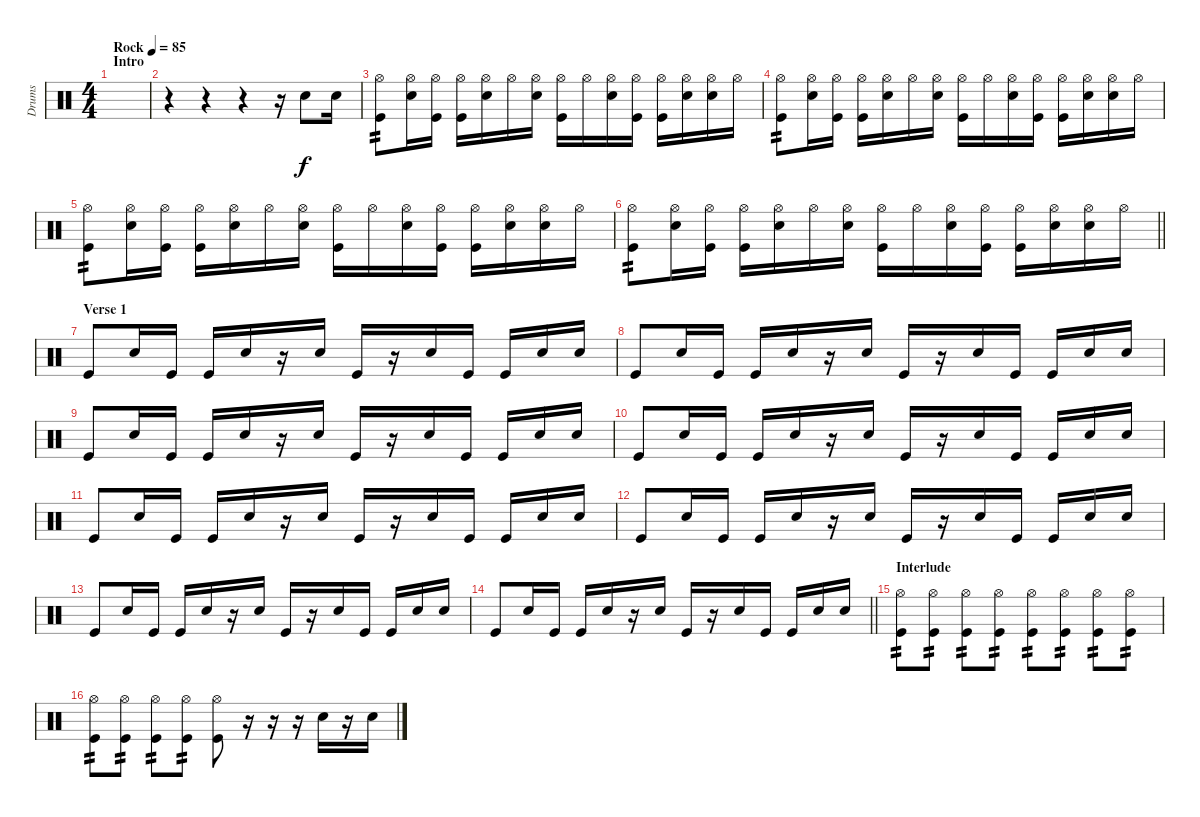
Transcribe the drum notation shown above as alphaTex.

\track ("Drums" "Drums") {instrument percussion}
\staff {score}
\articulation defaults
\ts (4 4)
\section ("" "Intro")
\tempo (85 "Rock")
\clef neutral
\ks c
|
r.4 r.4 r.4 r.16 "Snare (hit) 2".8 "Snare (hit) 2".16 |
("Hi-Hat (open)" "Kick (hit)").8{tp 2} ("Hi-Hat (open)" "Snare (hit) 2").16 ("Hi-Hat (open)" "Kick (hit)").16 ("Hi-Hat (open)" "Kick (hit)").16 ("Hi-Hat (open)" "Snare (hit) 2").16 "Hi-Hat (open)".16 ("Hi-Hat (open)" "Snare (hit) 2").16 ("Hi-Hat (open)" "Kick (hit)").16 "Hi-Hat (open)".16 ("Hi-Hat (open)" "Snare (hit) 2").16 ("Hi-Hat (open)" "Kick (hit)").16 ("Hi-Hat (open)" "Kick (hit)").16 ("Hi-Hat (open)" "Snare (hit) 2").16 ("Hi-Hat (open)" "Snare (hit) 2").16 "Hi-Hat (open)".16 |
("Hi-Hat (open)" "Kick (hit)").8{tp 2} ("Hi-Hat (open)" "Snare (hit) 2").16 ("Hi-Hat (open)" "Kick (hit)").16 ("Hi-Hat (open)" "Kick (hit)").16 ("Hi-Hat (open)" "Snare (hit) 2").16 "Hi-Hat (open)".16 ("Hi-Hat (open)" "Snare (hit) 2").16 ("Hi-Hat (open)" "Kick (hit)").16 "Hi-Hat (open)".16 ("Hi-Hat (open)" "Snare (hit) 2").16 ("Hi-Hat (open)" "Kick (hit)").16 ("Hi-Hat (open)" "Kick (hit)").16 ("Hi-Hat (open)" "Snare (hit) 2").16 ("Hi-Hat (open)" "Snare (hit) 2").16 "Hi-Hat (open)".16 |
("Hi-Hat (open)" "Kick (hit)").8{tp 2} ("Hi-Hat (open)" "Snare (hit) 2").16 ("Hi-Hat (open)" "Kick (hit)").16 ("Hi-Hat (open)" "Kick (hit)").16 ("Hi-Hat (open)" "Snare (hit) 2").16 "Hi-Hat (open)".16 ("Hi-Hat (open)" "Snare (hit) 2").16 ("Hi-Hat (open)" "Kick (hit)").16 "Hi-Hat (open)".16 ("Hi-Hat (open)" "Snare (hit) 2").16 ("Hi-Hat (open)" "Kick (hit)").16 ("Hi-Hat (open)" "Kick (hit)").16 ("Hi-Hat (open)" "Snare (hit) 2").16 ("Hi-Hat (open)" "Snare (hit) 2").16 "Hi-Hat (open)".16 |
\barLineRight lightlight
("Hi-Hat (open)" "Kick (hit)").8{tp 2} ("Hi-Hat (open)" "Snare (hit) 2").16 ("Hi-Hat (open)" "Kick (hit)").16 ("Hi-Hat (open)" "Kick (hit)").16 ("Hi-Hat (open)" "Snare (hit) 2").16 "Hi-Hat (open)".16 ("Hi-Hat (open)" "Snare (hit) 2").16 ("Hi-Hat (open)" "Kick (hit)").16 "Hi-Hat (open)".16 ("Hi-Hat (open)" "Snare (hit) 2").16 ("Hi-Hat (open)" "Kick (hit)").16 ("Hi-Hat (open)" "Kick (hit)").16 ("Hi-Hat (open)" "Snare (hit) 2").16 ("Hi-Hat (open)" "Snare (hit) 2").16 "Hi-Hat (open)".16 |
\section ("" "Verse 1")
"Kick (hit)".8 "Snare (hit) 2".16 "Kick (hit)".16 "Kick (hit)".16 "Snare (hit) 2".16 r.16 "Snare (hit) 2".16 "Kick (hit)".16 r.16 "Snare (hit) 2".16 "Kick (hit)".16 "Kick (hit)".16 "Snare (hit) 2".16 "Snare (hit) 2".16 |
"Kick (hit)".8 "Snare (hit) 2".16 "Kick (hit)".16 "Kick (hit)".16 "Snare (hit) 2".16 r.16 "Snare (hit) 2".16 "Kick (hit)".16 r.16 "Snare (hit) 2".16 "Kick (hit)".16 "Kick (hit)".16 "Snare (hit) 2".16 "Snare (hit) 2".16 |
"Kick (hit)".8 "Snare (hit) 2".16 "Kick (hit)".16 "Kick (hit)".16 "Snare (hit) 2".16 r.16 "Snare (hit) 2".16 "Kick (hit)".16 r.16 "Snare (hit) 2".16 "Kick (hit)".16 "Kick (hit)".16 "Snare (hit) 2".16 "Snare (hit) 2".16 |
"Kick (hit)".8 "Snare (hit) 2".16 "Kick (hit)".16 "Kick (hit)".16 "Snare (hit) 2".16 r.16 "Snare (hit) 2".16 "Kick (hit)".16 r.16 "Snare (hit) 2".16 "Kick (hit)".16 "Kick (hit)".16 "Snare (hit) 2".16 "Snare (hit) 2".16 |
"Kick (hit)".8 "Snare (hit) 2".16 "Kick (hit)".16 "Kick (hit)".16 "Snare (hit) 2".16 r.16 "Snare (hit) 2".16 "Kick (hit)".16 r.16 "Snare (hit) 2".16 "Kick (hit)".16 "Kick (hit)".16 "Snare (hit) 2".16 "Snare (hit) 2".16 |
"Kick (hit)".8 "Snare (hit) 2".16 "Kick (hit)".16 "Kick (hit)".16 "Snare (hit) 2".16 r.16 "Snare (hit) 2".16 "Kick (hit)".16 r.16 "Snare (hit) 2".16 "Kick (hit)".16 "Kick (hit)".16 "Snare (hit) 2".16 "Snare (hit) 2".16 |
"Kick (hit)".8 "Snare (hit) 2".16 "Kick (hit)".16 "Kick (hit)".16 "Snare (hit) 2".16 r.16 "Snare (hit) 2".16 "Kick (hit)".16 r.16 "Snare (hit) 2".16 "Kick (hit)".16 "Kick (hit)".16 "Snare (hit) 2".16 "Snare (hit) 2".16 |
\barLineRight lightlight "Kick (hit)".8 "Snare (hit) 2".16 "Kick (hit)".16 "Kick (hit)".16 "Snare (hit) 2".16
r.16 "Snare (hit) 2".16 "Kick (hit)".16 r.16 "Snare (hit) 2".16 "Kick (hit)".16 "Kick (hit)".16 "Snare (hit) 2".16 "Snare (hit) 2".16 |
\section ("" "Interlude")
("Hi-Hat (open)" "Kick (hit)").8{tp 2} ("Hi-Hat (open)" "Kick (hit)").8{tp 2} ("Hi-Hat (open)" "Kick (hit)").8{tp 2} ("Hi-Hat (open)" "Kick (hit)").8{tp 2} ("Hi-Hat (open)" "Kick (hit)").8{tp 2} ("Hi-Hat (open)" "Kick (hit)").8{tp 2} ("Hi-Hat (open)" "Kick (hit)").8{tp 2} ("Hi-Hat (open)" "Kick (hit)").8{tp 2} |
("Hi-Hat (open)" "Kick (hit)").8{tp 2} ("Hi-Hat (open)" "Kick (hit)").8{tp 2} ("Hi-Hat (open)" "Kick (hit)").8{tp 2} ("Hi-Hat (open)" "Kick (hit)").8{tp 2} ("Hi-Hat (open)" "Kick (hit)").8 r.16 r.16 r.16 "Snare (hit) 2".16 r.16 "Snare (hit) 2".16
